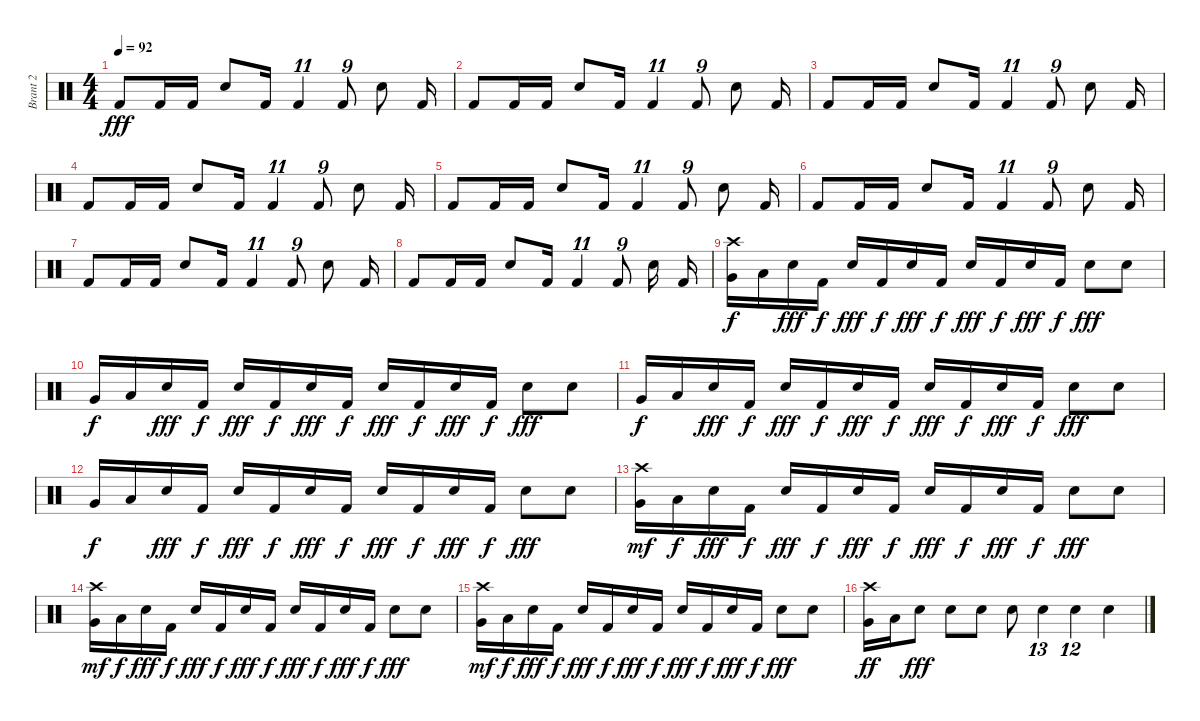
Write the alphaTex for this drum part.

\track ("Brant 2" "Brant 2") {instrument percussion}
\staff {score}
\articulation defaults
\ts (4 4)
\tempo 92
\clef neutral
\ks c "Kick (hit) 2".8{dy fff} "Kick (hit) 2".16 "Kick (hit) 2".16 "Electric Snare (hit)".8 "Kick (hit) 2".16 "Kick (hit) 2".4{tu (11 8)} "Kick (hit) 2".8{tu (9 8)} "Electric Snare (hit)".8 "Kick (hit) 2".16
|
"Kick (hit) 2".8 "Kick (hit) 2".16 "Kick (hit) 2".16 "Electric Snare (hit)".8 "Kick (hit) 2".16 "Kick (hit) 2".4{tu (11 8)} "Kick (hit) 2".8{tu (9 8)} "Electric Snare (hit)".8 "Kick (hit) 2".16 |
"Kick (hit) 2".8 "Kick (hit) 2".16 "Kick (hit) 2".16 "Electric Snare (hit)".8 "Kick (hit) 2".16 "Kick (hit) 2".4{tu (11 8)} "Kick (hit) 2".8{tu (9 8)} "Electric Snare (hit)".8 "Kick (hit) 2".16 |
"Kick (hit) 2".8 "Kick (hit) 2".16 "Kick (hit) 2".16 "Electric Snare (hit)".8 "Kick (hit) 2".16 "Kick (hit) 2".4{tu (11 8)} "Kick (hit) 2".8{tu (9 8)} "Electric Snare (hit)".8 "Kick (hit) 2".16 |
"Kick (hit) 2".8 "Kick (hit) 2".16 "Kick (hit) 2".16 "Electric Snare (hit)".8 "Kick (hit) 2".16 "Kick (hit) 2".4{tu (11 8)} "Kick (hit) 2".8{tu (9 8)} "Electric Snare (hit)".8 "Kick (hit) 2".16 |
"Kick (hit) 2".8 "Kick (hit) 2".16 "Kick (hit) 2".16 "Electric Snare (hit)".8 "Kick (hit) 2".16 "Kick (hit) 2".4{tu (11 8)} "Kick (hit) 2".8{tu (9 8)} "Electric Snare (hit)".8 "Kick (hit) 2".16 |
"Kick (hit) 2".8 "Kick (hit) 2".16 "Kick (hit) 2".16 "Electric Snare (hit)".8 "Kick (hit) 2".16 "Kick (hit) 2".4{tu (11 8)} "Kick (hit) 2".8{tu (9 8)} "Electric Snare (hit)".8 "Kick (hit) 2".16 |
"Kick (hit) 2".8 "Kick (hit) 2".16 "Kick (hit) 2".16 "Electric Snare (hit)".8 "Kick (hit) 2".16 "Kick (hit) 2".4{tu (11 8)} "Kick (hit) 2".8{tu (9 8)} "Electric Snare (hit)".16 "Kick (hit) 2".16 |
("Crash high (hit)" "Very Low Tom (hit)").16{dy f} "Low Floor Tom (hit)".16 "Electric Snare (hit)".16{dy fff} "Kick (hit) 2".16{dy f} "Electric Snare (hit)".16{dy fff} "Kick (hit) 2".16{dy f} "Electric Snare (hit)".16{dy fff} "Kick (hit) 2".16{dy f} "Electric Snare (hit)".16{dy fff} "Kick (hit) 2".16{dy f} "Electric Snare (hit)".16{dy fff} "Kick (hit) 2".16{dy f} "Electric Snare (hit)".8{dy fff} "Electric Snare (hit)".8 |
"Very Low Tom (hit)".16{dy f} "Low Floor Tom (hit)".16 "Electric Snare (hit)".16{dy fff} "Kick (hit) 2".16{dy f} "Electric Snare (hit)".16{dy fff} "Kick (hit) 2".16{dy f} "Electric Snare (hit)".16{dy fff} "Kick (hit) 2".16{dy f} "Electric Snare (hit)".16{dy fff} "Kick (hit) 2".16{dy f} "Electric Snare (hit)".16{dy fff} "Kick (hit) 2".16{dy f} "Electric Snare (hit)".8{dy fff} "Electric Snare (hit)".8 |
"Very Low Tom (hit)".16{dy f} "Low Floor Tom (hit)".16 "Electric Snare (hit)".16{dy fff} "Kick (hit) 2".16{dy f} "Electric Snare (hit)".16{dy fff} "Kick (hit) 2".16{dy f} "Electric Snare (hit)".16{dy fff} "Kick (hit) 2".16{dy f} "Electric Snare (hit)".16{dy fff} "Kick (hit) 2".16{dy f} "Electric Snare (hit)".16{dy fff} "Kick (hit) 2".16{dy f} "Electric Snare (hit)".8{dy fff} "Electric Snare (hit)".8 |
"Very Low Tom (hit)".16{dy f} "Low Floor Tom (hit)".16 "Electric Snare (hit)".16{dy fff} "Kick (hit) 2".16{dy f} "Electric Snare (hit)".16{dy fff} "Kick (hit) 2".16{dy f} "Electric Snare (hit)".16{dy fff} "Kick (hit) 2".16{dy f} "Electric Snare (hit)".16{dy fff} "Kick (hit) 2".16{dy f} "Electric Snare (hit)".16{dy fff} "Kick (hit) 2".16{dy f} "Electric Snare (hit)".8{dy fff} "Electric Snare (hit)".8 |
("Crash high (hit)" "Very Low Tom (hit)").16{dy mf} "Low Floor Tom (hit)".16{dy f} "Electric Snare (hit)".16{dy fff} "Kick (hit) 2".16{dy f} "Electric Snare (hit)".16{dy fff} "Kick (hit) 2".16{dy f} "Electric Snare (hit)".16{dy fff} "Kick (hit) 2".16{dy f} "Electric Snare (hit)".16{dy fff} "Kick (hit) 2".16{dy f} "Electric Snare (hit)".16{dy fff} "Kick (hit) 2".16{dy f} "Electric Snare (hit)".8{dy fff} "Electric Snare (hit)".8 |
("Crash high (hit)" "Very Low Tom (hit)").16{dy mf} "Low Floor Tom (hit)".16{dy f} "Electric Snare (hit)".16{dy fff} "Kick (hit) 2".16{dy f} "Electric Snare (hit)".16{dy fff} "Kick (hit) 2".16{dy f} "Electric Snare (hit)".16{dy fff} "Kick (hit) 2".16{dy f} "Electric Snare (hit)".16{dy fff} "Kick (hit) 2".16{dy f} "Electric Snare (hit)".16{dy fff} "Kick (hit) 2".16{dy f} "Electric Snare (hit)".8{dy fff} "Electric Snare (hit)".8 |
("Crash high (hit)" "Very Low Tom (hit)").16{dy mf} "Low Floor Tom (hit)".16{dy f} "Electric Snare (hit)".16{dy fff} "Kick (hit) 2".16{dy f} "Electric Snare (hit)".16{dy fff} "Kick (hit) 2".16{dy f} "Electric Snare (hit)".16{dy fff} "Kick (hit) 2".16{dy f} "Electric Snare (hit)".16{dy fff} "Kick (hit) 2".16{dy f} "Electric Snare (hit)".16{dy fff} "Kick (hit) 2".16{dy f} "Electric Snare (hit)".8{dy fff} "Electric Snare (hit)".8 |
("Crash high (hit)" "Very Low Tom (hit)").16{dy ff} "Low Floor Tom (hit)".16 "Electric Snare (hit)".8{dy fff} "Electric Snare (hit)".8 "Electric Snare (hit)".8 "Electric Snare (hit)".8 "Electric Snare (hit)".4{tu (13 8)} "Electric Snare (hit)".4{tu (12 8)} "Electric Snare (hit)".4
